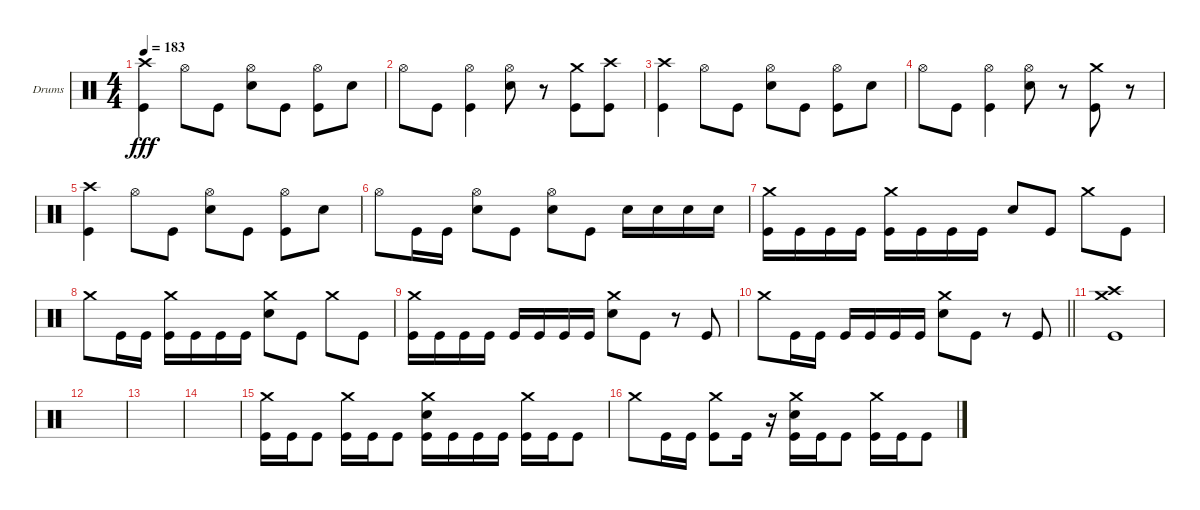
\bracketExtendMode groupsimilarinstruments
\firstSystemTrackNameOrientation horizontal
\otherSystemsTrackNameOrientation horizontal
\track ("Drumkit" "Drums") {instrument percussion}
\staff {score}
\articulation defaults
\ts (4 4)
\tempo 183
\clef neutral
\scale
0.333333
\ks c
("Kick (hit)" "Crash high (hit)").4{dy fff} "Hi-Hat (open)".8 "Kick (hit)".8 ("Snare (hit) 2" "Hi-Hat (open)").8 "Kick (hit)".8 ("Kick (hit)" "Hi-Hat (open)").8 "Snare (hit) 2".8 |
\scale
0.333333 "Hi-Hat (open)".8 "Kick (hit)".8 ("Kick (hit)" "Hi-Hat (open)").4 ("Snare (hit) 2" "Hi-Hat (open)").8 r.8 ("Kick (hit)" "Crash medium (hit)").8 ("Kick (hit)" "Crash high (hit)").8 |
\scale
0.333333 ("Kick (hit)" "Crash high (hit)").4 "Hi-Hat (open)".8 "Kick (hit)".8 ("Snare (hit) 2" "Hi-Hat (open)").8 "Kick (hit)".8 ("Kick (hit)" "Hi-Hat (open)").8 "Snare (hit) 2".8 |
\scale
0.333333 "Hi-Hat (open)".8 "Kick (hit)".8 ("Kick (hit)" "Hi-Hat (open)").4 ("Snare (hit) 2" "Hi-Hat (open)").8 r.8 ("Kick (hit)" "Crash medium (hit)").8 r.8 |
\scale
0.333333 ("Kick (hit)" "Crash high (hit)").4 "Hi-Hat (open)".8 "Kick (hit)".8 ("Snare (hit) 2" "Hi-Hat (open)").8 "Kick (hit)".8 ("Kick (hit)" "Hi-Hat (open)").8 "Snare (hit) 2".8 |
\scale
0.333333 "Hi-Hat (open)".8 "Kick (hit)".16 "Kick (hit)".16 ("Snare (hit) 2" "Hi-Hat (open)").8 "Kick (hit)".8 ("Snare (hit) 2" "Hi-Hat (open)").8 "Kick (hit)".8 "Snare (hit) 2".16 "Snare (hit) 2".16 "Snare (hit) 2".16 "Snare (hit) 2".16 |
\scale
0.333333 ("Kick (hit)" "Crash medium (hit)").16 "Kick (hit)".16 "Kick (hit)".16 "Kick (hit)".16 ("Crash medium (hit)" "Kick (hit)").16 "Kick (hit)".16 "Kick (hit)".16 "Kick (hit)".16 "Snare (hit) 2".8 "Kick (hit)".8 "Crash medium (hit)".8 "Kick (hit)".8 |
\scale
0.333333 "Crash medium (hit)".8 "Kick (hit)".16 "Kick (hit)".16 ("Kick (hit)" "Crash medium (hit)").16 "Kick (hit)".16 "Kick (hit)".16 "Kick (hit)".16 ("Snare (hit) 2" "Crash medium (hit)").8 "Kick (hit)".8 "Crash medium (hit)".8 "Kick (hit)".8 |
\scale
0.333333 ("Kick (hit)" "Crash medium (hit)").16 "Kick (hit)".16 "Kick (hit)".16 "Kick (hit)".16 "Kick (hit)".16 "Kick (hit)".16 "Kick (hit)".16 "Kick (hit)".16 ("Snare (hit) 2" "Crash medium (hit)").8 "Kick (hit)".8 r.8 "Kick (hit)".8 |
\scale
0.333333
\barLineRight lightlight "Crash medium (hit)".8 "Kick (hit)".16 "Kick (hit)".16 "Kick (hit)".16 "Kick (hit)".16 "Kick (hit)".16 "Kick (hit)".16
("Snare (hit) 2" "Crash medium (hit)").8 "Kick (hit)".8 r.8 "Kick (hit)".8 |
\scale
0.333333 ("Kick (hit)" "Crash high (hit)" "Crash medium (hit)").1 |
\scale
0.333333 |
\scale
0.333333 |
\scale
0.333333 |
\scale
0.333333 ("Kick (hit)" "Crash medium (hit)").16 "Kick (hit)".16 "Kick (hit)".8 ("Kick (hit)" "Crash medium (hit)").16 "Kick (hit)".16 "Kick (hit)".8 ("Snare (hit) 2" "Crash medium (hit)" "Kick (hit)").16 "Kick (hit)".16 "Kick (hit)".16 "Kick (hit)".16 ("Kick (hit)" "Crash medium (hit)").16 "Kick (hit)".16 "Kick (hit)".8 |
\scale
0.333333 "Crash medium (hit)".8 "Kick (hit)".16 "Kick (hit)".16 ("Kick (hit)" "Crash medium (hit)").8 "Kick (hit)".16 r.16 ("Kick (hit)" "Snare (hit) 2" "Crash medium (hit)").16 "Kick (hit)".16 "Kick (hit)".8 ("Crash medium (hit)" "Kick (hit)").16 "Kick (hit)".16 "Kick (hit)".8
